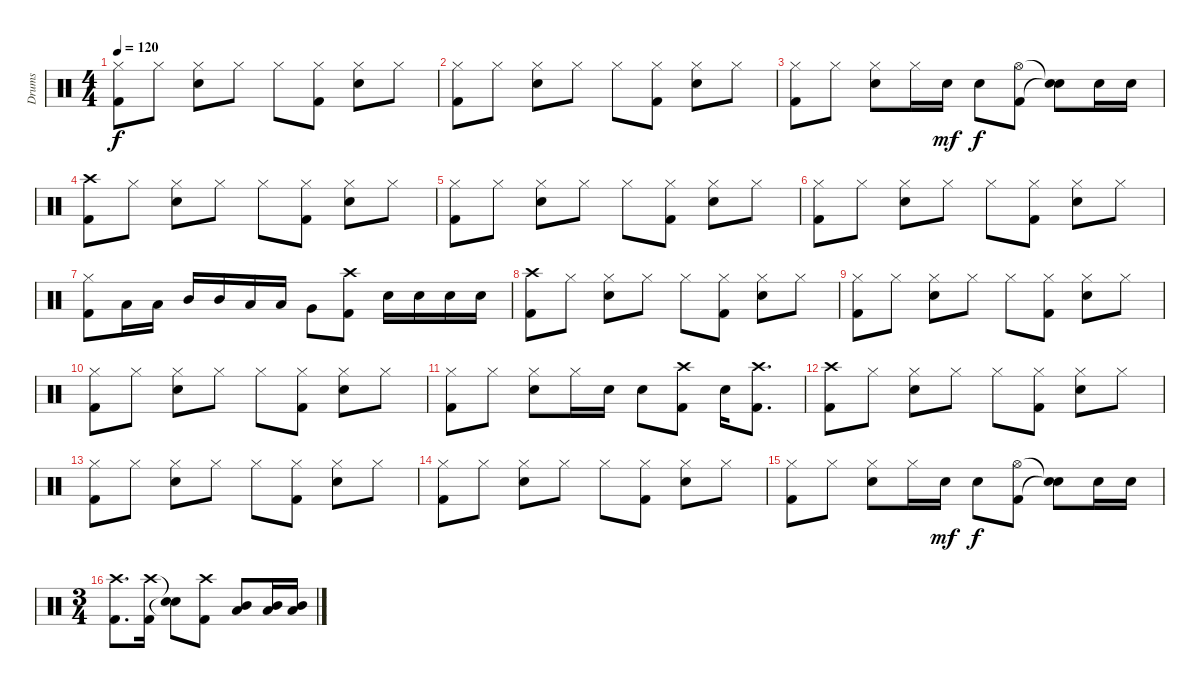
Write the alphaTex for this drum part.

\track ("Drums" "Drums") {instrument percussion}
\staff {score}
\articulation defaults
\ts (4 4)
\tempo 120
\clef neutral
\ks c
("Hi-Hat (closed)" "Kick (hit) 2").8{dy f} "Hi-Hat (closed)".8 ("Hi-Hat (closed)" "Snare (hit) 2").8 "Hi-Hat (closed)".8 "Hi-Hat (closed)".8 ("Hi-Hat (closed)" "Kick (hit) 2").8 ("Hi-Hat (closed)" "Snare (hit) 2").8 "Hi-Hat (closed)".8 |
("Hi-Hat (closed)" "Kick (hit) 2").8 "Hi-Hat (closed)".8 ("Hi-Hat (closed)" "Snare (hit) 2").8 "Hi-Hat (closed)".8 "Hi-Hat (closed)".8 ("Hi-Hat (closed)" "Kick (hit) 2").8 ("Hi-Hat (closed)" "Snare (hit) 2").8 "Hi-Hat (closed)".8 |
("Hi-Hat (closed)" "Kick (hit) 2").8 "Hi-Hat (closed)".8 ("Hi-Hat (closed)" "Snare (hit) 2").8 "Hi-Hat (closed)".16 "Snare (hit) 2".16{dy mf} "Snare (hit) 2".8{dy f} ("Hi-Hat (open)" "Kick (hit) 2").8 ("Snare (hit)"{t} "Snare (hit)"{t}).8 "Snare (hit) 2".16 "Snare (hit) 2".16 |
("Crash high (hit)" "Kick (hit) 2").8 "Hi-Hat (closed)".8 ("Hi-Hat (closed)" "Snare (hit) 2").8 "Hi-Hat (closed)".8 "Hi-Hat (closed)".8 ("Hi-Hat (closed)" "Kick (hit) 2").8 ("Hi-Hat (closed)" "Snare (hit) 2").8 "Hi-Hat (closed)".8 |
("Hi-Hat (closed)" "Kick (hit) 2").8 "Hi-Hat (closed)".8 ("Hi-Hat (closed)" "Snare (hit) 2").8 "Hi-Hat (closed)".8 "Hi-Hat (closed)".8 ("Hi-Hat (closed)" "Kick (hit) 2").8 ("Hi-Hat (closed)" "Snare (hit) 2").8 "Hi-Hat (closed)".8 |
("Hi-Hat (closed)" "Kick (hit) 2").8 "Hi-Hat (closed)".8 ("Hi-Hat (closed)" "Snare (hit) 2").8 "Hi-Hat (closed)".8 "Hi-Hat (closed)".8 ("Hi-Hat (closed)" "Kick (hit) 2").8 ("Hi-Hat (closed)" "Snare (hit) 2").8 "Hi-Hat (closed)".8 |
("Hi-Hat (closed)" "Kick (hit) 2").8 "Low Tom (hit)".16 "Low Tom (hit)".16 "Mid Tom (hit)".16 "Mid Tom (hit)".16 "Low Tom (hit)".16 "Low Tom (hit)".16 "Very Low Tom (hit)".8 ("Crash high (hit)" "Kick (hit) 2").8 "Snare (hit) 2".16 "Snare (hit) 2".16 "Snare (hit) 2".16 "Snare (hit) 2".16 |
("Crash high (hit)" "Kick (hit) 2").8 "Hi-Hat (closed)".8 ("Hi-Hat (closed)" "Snare (hit) 2").8 "Hi-Hat (closed)".8 "Hi-Hat (closed)".8 ("Hi-Hat (closed)" "Kick (hit) 2").8 ("Hi-Hat (closed)" "Snare (hit) 2").8 "Hi-Hat (closed)".8 |
("Hi-Hat (closed)" "Kick (hit) 2").8 "Hi-Hat (closed)".8 ("Hi-Hat (closed)" "Snare (hit) 2").8 "Hi-Hat (closed)".8 "Hi-Hat (closed)".8 ("Hi-Hat (closed)" "Kick (hit) 2").8 ("Hi-Hat (closed)" "Snare (hit) 2").8 "Hi-Hat (closed)".8 |
("Hi-Hat (closed)" "Kick (hit) 2").8 "Hi-Hat (closed)".8 ("Hi-Hat (closed)" "Snare (hit) 2").8 "Hi-Hat (closed)".8 "Hi-Hat (closed)".8 ("Hi-Hat (closed)" "Kick (hit) 2").8 ("Hi-Hat (closed)" "Snare (hit) 2").8 "Hi-Hat (closed)".8 |
("Hi-Hat (closed)" "Kick (hit) 2").8 "Hi-Hat (closed)".8 ("Hi-Hat (closed)" "Snare (hit) 2").8 "Hi-Hat (closed)".16 "Snare (hit) 2".16 "Snare (hit) 2".8 ("Crash high (hit)" "Kick (hit) 2").8 "Snare (hit) 2".16 ("Crash high (hit)" "Kick (hit) 2").8{d} |
("Crash high (hit)" "Kick (hit) 2").8 "Hi-Hat (closed)".8 ("Hi-Hat (closed)" "Snare (hit) 2").8 "Hi-Hat (closed)".8 "Hi-Hat (closed)".8 ("Hi-Hat (closed)" "Kick (hit) 2").8 ("Hi-Hat (closed)" "Snare (hit) 2").8 "Hi-Hat (closed)".8 |
("Hi-Hat (closed)" "Kick (hit) 2").8 "Hi-Hat (closed)".8 ("Hi-Hat (closed)" "Snare (hit) 2").8 "Hi-Hat (closed)".8 "Hi-Hat (closed)".8 ("Hi-Hat (closed)" "Kick (hit) 2").8 ("Hi-Hat (closed)" "Snare (hit) 2").8 "Hi-Hat (closed)".8 |
("Hi-Hat (closed)" "Kick (hit) 2").8 "Hi-Hat (closed)".8 ("Hi-Hat (closed)" "Snare (hit) 2").8 "Hi-Hat (closed)".8 "Hi-Hat (closed)".8 ("Hi-Hat (closed)" "Kick (hit) 2").8 ("Hi-Hat (closed)" "Snare (hit) 2").8 "Hi-Hat (closed)".8 |
("Hi-Hat (closed)" "Kick (hit) 2").8 "Hi-Hat (closed)".8 ("Hi-Hat (closed)" "Snare (hit) 2").8 "Hi-Hat (closed)".16 "Snare (hit) 2".16{dy mf} "Snare (hit) 2".8{dy f} ("Hi-Hat (open)" "Kick (hit) 2").8 ("Snare (hit)"{t} "Snare (hit)"{t}).8 "Snare (hit) 2".16 "Snare (hit) 2".16 |
\ts (3 4)
("Crash high (hit)" "Kick (hit) 2").8{d} ("Crash high (hit)" "Kick (hit) 2").16 ("Snare (hit)"{t} "Snare (hit)"{t}).8 ("Crash high (hit)" "Kick (hit) 2").8 ("Mid Tom (hit)" "Low Tom (hit)").8 ("Mid Tom (hit)" "Low Tom (hit)").16 ("Mid Tom (hit)" "Low Tom (hit)").16
